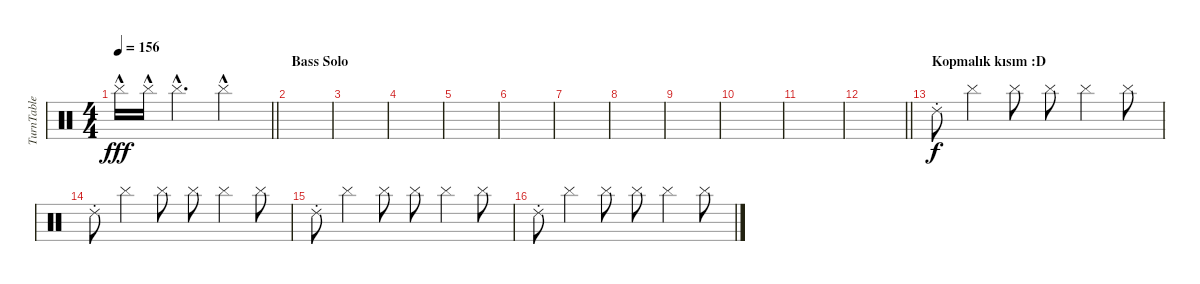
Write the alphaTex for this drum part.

\track ("TurnTable" "TurnTable") {instrument percussion}
\staff {score}
\articulation defaults
\ts (4 4)
\tempo 156
\clef neutral
\barLineRight lightlight
\ks c "Cymbal (hit)"{hac}.16{dy fff} "Cymbal (hit)"{hac}.16 "Cymbal (hit)"{hac}.4{d} "Cymbal (hit)"{hac}.2
|
\section ("" "Bass Solo")
|
|
|
|
|
|
|
|
|
|
\barLineRight lightlight
|
\section ("" "Kopmalık kısım :D")
"Ride (choke) 2".8{dy f} "Cymbal (hit)".4 "Cymbal (hit)".8 "Cymbal (hit)".8 "Cymbal (hit)".4 "Cymbal (hit)".8 |
"Ride (choke) 2".8 "Cymbal (hit)".4 "Cymbal (hit)".8 "Cymbal (hit)".8 "Cymbal (hit)".4 "Cymbal (hit)".8 |
"Ride (choke) 2".8 "Cymbal (hit)".4 "Cymbal (hit)".8 "Cymbal (hit)".8 "Cymbal (hit)".4 "Cymbal (hit)".8 |
"Ride (choke) 2".8 "Cymbal (hit)".4 "Cymbal (hit)".8 "Cymbal (hit)".8 "Cymbal (hit)".4 "Cymbal (hit)".8
